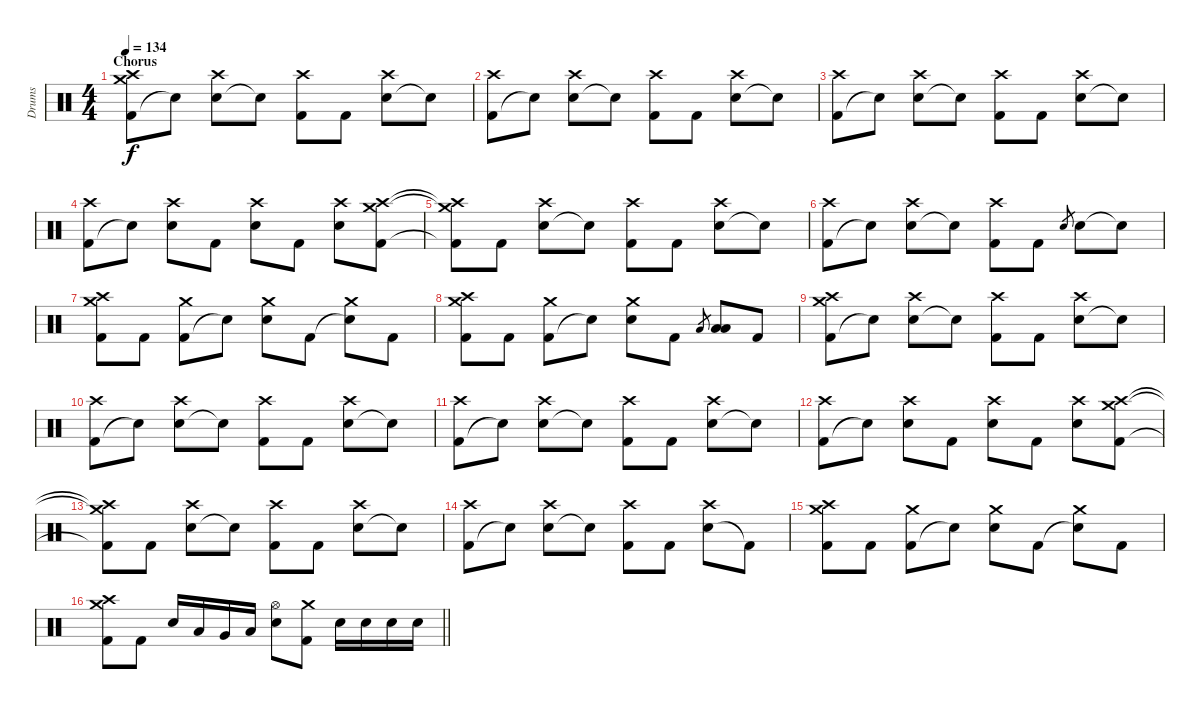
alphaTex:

\track ("Drums" "Drums") {instrument percussion}
\staff {score}
\articulation defaults
\ts (4 4)
\section ("" "Chorus")
\tempo 134
\clef neutral
\ks c
("Kick (hit) 2" "Crash medium (hit)" "Crash high (hit)").8{dy f} "Snare (hit)"{t}.8 ("Electric Snare (hit)" "Crash high (hit)").8 "Snare (hit)"{t}.8 ("Kick (hit) 2" "Crash high (hit)").8 "Kick (hit) 2".8 ("Electric Snare (hit)" "Crash high (hit)").8 "Snare (hit)"{t}.8 |
("Kick (hit) 2" "Crash high (hit)").8 "Snare (hit)"{t}.8 ("Electric Snare (hit)" "Crash high (hit)").8 "Snare (hit)"{t}.8 ("Kick (hit) 2" "Crash high (hit)").8 "Kick (hit) 2".8 ("Electric Snare (hit)" "Crash high (hit)").8 "Snare (hit)"{t}.8 |
("Kick (hit) 2" "Crash high (hit)").8 "Snare (hit)"{t}.8 ("Electric Snare (hit)" "Crash high (hit)").8 "Snare (hit)"{t}.8 ("Kick (hit) 2" "Crash high (hit)").8 "Kick (hit) 2".8 ("Electric Snare (hit)" "Crash high (hit)").8 "Snare (hit)"{t}.8 |
("Kick (hit) 2" "Crash high (hit)").8 "Snare (hit)"{t}.8 ("Electric Snare (hit)" "Crash high (hit)").8 "Kick (hit) 2".8 ("Electric Snare (hit)" "Crash high (hit)").8 "Kick (hit) 2".8 ("Electric Snare (hit)" "Crash high (hit)").8 ("Kick (hit) 2" "Crash medium (hit)" "Crash high (hit)").8 |
("Kick (hit) 2"{t} "Crash medium (hit)"{t} "Crash high (hit)"{t}).8 "Kick (hit) 2".8 ("Electric Snare (hit)" "Crash high (hit)").8 "Snare (hit)"{t}.8 ("Kick (hit) 2" "Crash high (hit)").8 "Kick (hit) 2".8 ("Electric Snare (hit)" "Crash high (hit)").8 "Snare (hit)"{t}.8 |
("Kick (hit) 2" "Crash high (hit)").8 "Snare (hit)"{t}.8 ("Electric Snare (hit)" "Crash high (hit)").8 "Snare (hit)"{t}.8 ("Kick (hit) 2" "Crash high (hit)").8 "Kick (hit) 2".8 "Electric Snare (hit)".8{gr} "Electric Snare (hit)".8 "Snare (hit)"{t}.8 |
("Kick (hit) 2" "Crash medium (hit)" "Crash high (hit)").8 "Kick (hit) 2".8 ("Kick (hit) 2" "Crash medium (hit)").8 "Snare (hit)"{t}.8 ("Electric Snare (hit)" "Crash medium (hit)").8 "Kick (hit) 2".8 ("Electric Snare (hit)"{t} "Crash medium (hit)").8 "Kick (hit) 2".8 |
("Kick (hit) 2" "Crash medium (hit)" "Crash high (hit)").8 "Kick (hit) 2".8 ("Kick (hit) 2" "Crash medium (hit)").8 "Snare (hit)"{t}.8 ("Electric Snare (hit)" "Crash medium (hit)").8 "Kick (hit) 2".8 "Low Tom (hit)".8{gr} ("Low Tom (hit)" "Low Floor Tom (hit)").8 "Kick (hit) 2".8 |
("Kick (hit) 2" "Crash medium (hit)" "Crash high (hit)").8 "Snare (hit)"{t}.8 ("Electric Snare (hit)" "Crash high (hit)").8 "Snare (hit)"{t}.8 ("Kick (hit) 2" "Crash high (hit)").8 "Kick (hit) 2".8 ("Electric Snare (hit)" "Crash high (hit)").8 "Snare (hit)"{t}.8 |
("Kick (hit) 2" "Crash high (hit)").8 "Snare (hit)"{t}.8 ("Electric Snare (hit)" "Crash high (hit)").8 "Snare (hit)"{t}.8 ("Kick (hit) 2" "Crash high (hit)").8 "Kick (hit) 2".8 ("Electric Snare (hit)" "Crash high (hit)").8 "Snare (hit)"{t}.8 |
("Kick (hit) 2" "Crash high (hit)").8 "Snare (hit)"{t}.8 ("Electric Snare (hit)" "Crash high (hit)").8 "Snare (hit)"{t}.8 ("Kick (hit) 2" "Crash high (hit)").8 "Kick (hit) 2".8 ("Electric Snare (hit)" "Crash high (hit)").8 "Snare (hit)"{t}.8 |
("Kick (hit) 2" "Crash high (hit)").8 "Snare (hit)"{t}.8 ("Electric Snare (hit)" "Crash high (hit)").8 "Kick (hit) 2".8 ("Electric Snare (hit)" "Crash high (hit)").8 "Kick (hit) 2".8 ("Electric Snare (hit)" "Crash high (hit)").8 ("Kick (hit) 2" "Crash medium (hit)" "Crash high (hit)").8 |
("Kick (hit) 2"{t} "Crash medium (hit)"{t} "Crash high (hit)"{t}).8 "Kick (hit) 2".8 ("Electric Snare (hit)" "Crash high (hit)").8 "Snare (hit)"{t}.8 ("Kick (hit) 2" "Crash high (hit)").8 "Kick (hit) 2".8 ("Electric Snare (hit)" "Crash high (hit)").8 "Snare (hit)"{t}.8 |
("Kick (hit) 2" "Crash high (hit)").8 "Snare (hit)"{t}.8 ("Electric Snare (hit)" "Crash high (hit)").8 "Snare (hit)"{t}.8 ("Kick (hit) 2" "Crash high (hit)").8 "Kick (hit) 2".8 ("Electric Snare (hit)" "Crash high (hit)").8 "Kick (hit) 2"{t}.8 |
("Kick (hit) 2" "Crash medium (hit)" "Crash high (hit)").8 "Kick (hit) 2".8 ("Kick (hit) 2" "Crash medium (hit)").8 "Snare (hit)"{t}.8 ("Electric Snare (hit)" "Crash medium (hit)").8 "Kick (hit) 2".8 ("Electric Snare (hit)"{t} "Crash medium (hit)").8 "Kick (hit) 2".8 |
\barLineRight lightlight
("Kick (hit) 2" "Crash medium (hit)" "Crash high (hit)").8 "Kick (hit) 2".8 "Electric Snare (hit)".16 "Low Tom (hit)".16 "Very Low Tom (hit)".16 "Low Floor Tom (hit)".16 ("Electric Snare (hit)" "Hi-Hat (open)").8 ("Kick (hit) 2" "Crash medium (hit)").8 "Electric Snare (hit)".16 "Electric Snare (hit)".16 "Electric Snare (hit)".16 "Electric Snare (hit)".16
